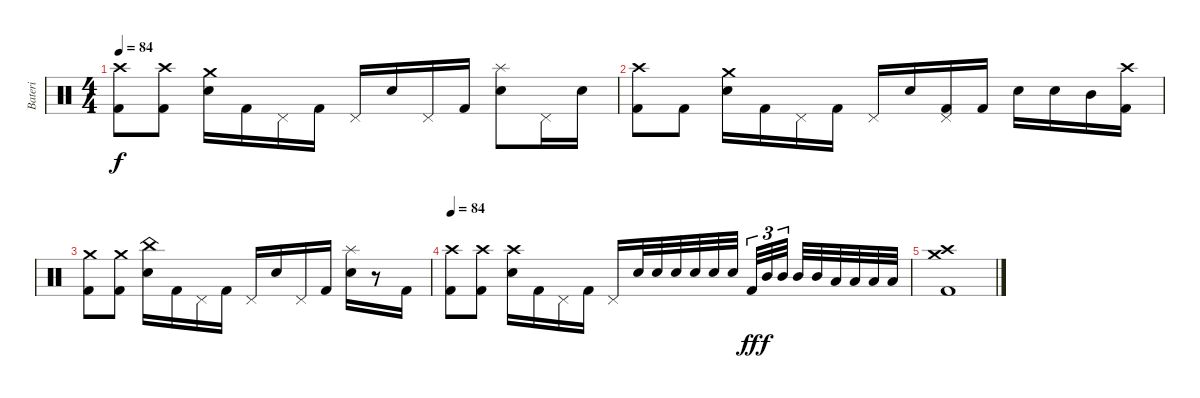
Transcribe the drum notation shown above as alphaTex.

\track ("Bateri" "Bateri") {instrument percussion}
\staff {score}
\articulation defaults
\ts (4 4)
\tempo 84
\clef neutral
\ks c
("Crash high (hit)" "Kick (hit) 2").8{dy f} ("Crash high (hit)" "Kick (hit) 2").8 ("Crash medium (hit)" "Electric Snare (hit)").16 "Kick (hit) 2".16 "Pedal Hi-Hat (hit)".16 "Kick (hit) 2".16 "Pedal Hi-Hat (hit)".16 "Electric Snare (hit)".16 "Pedal Hi-Hat (hit)".16 "Kick (hit) 2".16 ("Splash (hit)" "Electric Snare (hit)").8 "Pedal Hi-Hat (hit)".16 "Electric Snare (hit)".16 |
("Crash high (hit)" "Kick (hit) 2").8 "Kick (hit) 2".8 ("Crash medium (hit)" "Electric Snare (hit)").16 "Kick (hit) 2".16 "Pedal Hi-Hat (hit)".16 "Kick (hit) 2".16 "Pedal Hi-Hat (hit)".16 "Electric Snare (hit)".16 ("Pedal Hi-Hat (hit)" "Kick (hit) 2").16 "Kick (hit) 2".16 "Electric Snare (hit)".16 "Electric Snare (hit)".16 "Mid Tom (hit)".16 ("Crash high (hit)" "Kick (hit) 2").16 |
("Crash medium (hit)" "Kick (hit) 2").8 ("Crash medium (hit)" "Kick (hit) 2").8 ("China (hit)" "Electric Snare (hit)").16 "Kick (hit) 2".16 "Pedal Hi-Hat (hit)".16 "Kick (hit) 2".16 "Pedal Hi-Hat (hit)".16 "Electric Snare (hit)".16 "Pedal Hi-Hat (hit)".16 "Kick (hit) 2".16 ("Splash (hit)" "Electric Snare (hit)").16 r.8 "Kick (hit) 2".16 |
\tempo 84
("Crash high (hit)" "Kick (hit) 2").8 ("Crash high (hit)" "Kick (hit) 2").8 ("Crash high (hit)" "Electric Snare (hit)").16 "Kick (hit) 2".16 "Pedal Hi-Hat (hit)".16 "Kick (hit) 2".16 "Pedal Hi-Hat (hit)".16 "Electric Snare (hit)".32 "Electric Snare (hit)".32 "Electric Snare (hit)".32 "Electric Snare (hit)".32 "Electric Snare (hit)".32 "Electric Snare (hit)".32 "Kick (hit) 2".32{tu (3 2) dy ff} "Mid Tom (hit)".32{tu (3 2) dy f} "Mid Tom (hit)".32{tu (3 2)} "Mid Tom (hit)".32 "Mid Tom (hit)".32 "Low Tom (hit)".32 "Low Tom (hit)".32 "Low Tom (hit)".32 "Low Tom (hit)".32 |
("Crash medium (hit)" "Crash high (hit)" "Kick (hit) 2").1
